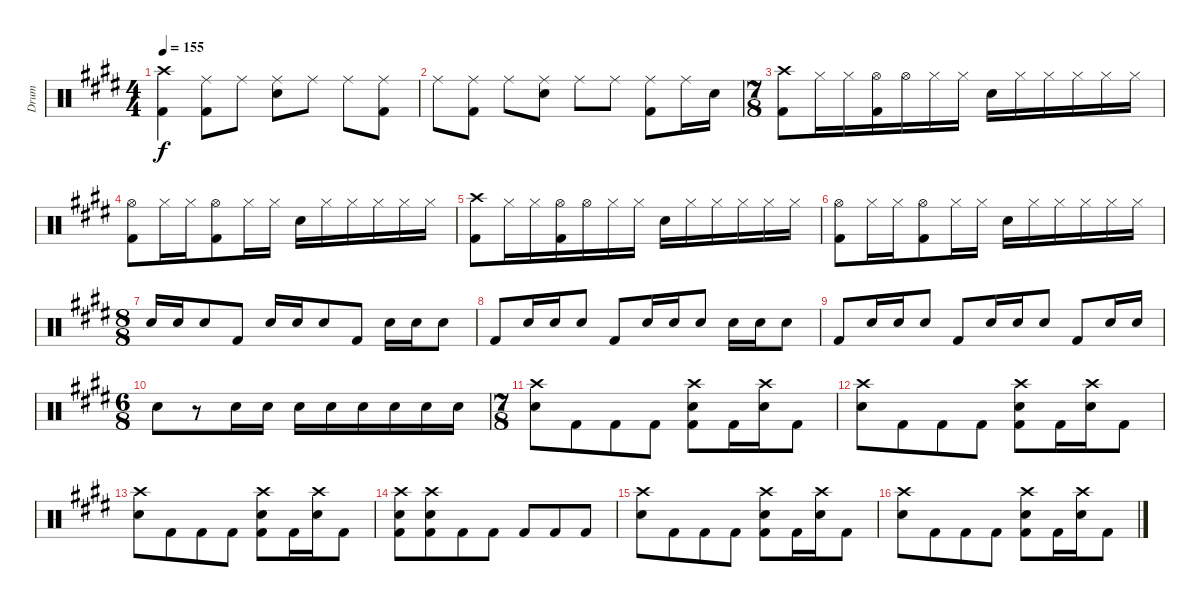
\track ("Drum" "Drum") {instrument percussion}
\staff {score}
\articulation defaults
\ts (4 4)
\tempo 155
\clef neutral
\ks e
("Crash high (hit)" "Kick (hit) 2").4{dy f} ("Ride (middle)" "Kick (hit) 2").8 "Ride (middle)".8 ("Ride (middle)" "Snare (hit) 2").8 "Ride (middle)".8 "Ride (middle)".8 ("Ride (middle)" "Kick (hit) 2").8 |
"Ride (middle)".8 ("Ride (middle)" "Kick (hit) 2").8 "Ride (middle)".8 ("Ride (middle)" "Snare (hit) 2").8 "Ride (middle)".8 "Ride (middle)".8 ("Ride (middle)" "Kick (hit) 2").8 "Ride (middle)".16 "Snare (hit) 2".16 |
\ts (7 8)
("Crash high (hit)" "Kick (hit) 2").8 "Hi-Hat (closed)".16 "Hi-Hat (closed)".16 ("Hi-Hat (open)" "Kick (hit) 2").16 "Hi-Hat (open)".16 "Hi-Hat (closed)".16 "Hi-Hat (closed)".16 "Snare (hit) 2".16 "Hi-Hat (closed)".16 "Hi-Hat (closed)".16 "Hi-Hat (closed)".16 "Hi-Hat (closed)".16 "Hi-Hat (closed)".16 |
("Hi-Hat (open)" "Kick (hit) 2").8 "Hi-Hat (closed)".16 "Hi-Hat (closed)".16 ("Hi-Hat (open)" "Kick (hit) 2").8 "Hi-Hat (closed)".16 "Hi-Hat (closed)".16 "Snare (hit) 2".16 "Hi-Hat (closed)".16 "Hi-Hat (closed)".16 "Hi-Hat (closed)".16 "Hi-Hat (closed)".16 "Hi-Hat (closed)".16 |
("Crash high (hit)" "Kick (hit) 2").8 "Hi-Hat (closed)".16 "Hi-Hat (closed)".16 ("Hi-Hat (open)" "Kick (hit) 2").16 "Hi-Hat (open)".16 "Hi-Hat (closed)".16 "Hi-Hat (closed)".16 "Snare (hit) 2".16 "Hi-Hat (closed)".16 "Hi-Hat (closed)".16 "Hi-Hat (closed)".16 "Hi-Hat (closed)".16 "Hi-Hat (closed)".16 |
("Hi-Hat (open)" "Kick (hit) 2").8 "Hi-Hat (closed)".16 "Hi-Hat (closed)".16 ("Hi-Hat (open)" "Kick (hit) 2").8 "Hi-Hat (closed)".16 "Hi-Hat (closed)".16 "Snare (hit) 2".16 "Hi-Hat (closed)".16 "Hi-Hat (closed)".16 "Hi-Hat (closed)".16 "Hi-Hat (closed)".16 "Hi-Hat (closed)".16 |
\ts (8 8)
"Snare (hit) 2".16 "Snare (hit) 2".16 "Snare (hit) 2".8 "Kick (hit) 2".8 "Snare (hit) 2".16 "Snare (hit) 2".16 "Snare (hit) 2".8 "Kick (hit) 2".8 "Snare (hit) 2".16 "Snare (hit) 2".16 "Snare (hit) 2".8 |
"Kick (hit) 2".8 "Snare (hit) 2".16 "Snare (hit) 2".16 "Snare (hit) 2".8 "Kick (hit) 2".8 "Snare (hit) 2".16 "Snare (hit) 2".16 "Snare (hit) 2".8 "Snare (hit) 2".16 "Snare (hit) 2".16 "Snare (hit) 2".8 |
"Kick (hit) 2".8 "Snare (hit) 2".16 "Snare (hit) 2".16 "Snare (hit) 2".8 "Kick (hit) 2".8 "Snare (hit) 2".16 "Snare (hit) 2".16 "Snare (hit) 2".8 "Kick (hit) 2".8 "Snare (hit) 2".16 "Snare (hit) 2".16 |
\ts (6 8)
"Snare (hit) 2".8 r.8 "Snare (hit) 2".16 "Snare (hit) 2".16 "Snare (hit) 2".16 "Snare (hit) 2".16 "Snare (hit) 2".16 "Snare (hit) 2".16 "Snare (hit) 2".16 "Snare (hit) 2".16 |
\ts (7 8)
("Crash high (hit)" "Snare (hit) 2").8 "Kick (hit) 2".8 "Kick (hit) 2".8 "Kick (hit) 2".8 ("Crash high (hit)" "Snare (hit) 2" "Kick (hit) 2").8 "Kick (hit) 2".16 ("Crash high (hit)" "Snare (hit) 2").16 "Kick (hit) 2".8 |
("Crash high (hit)" "Snare (hit) 2").8 "Kick (hit) 2".8 "Kick (hit) 2".8 "Kick (hit) 2".8 ("Crash high (hit)" "Snare (hit) 2" "Kick (hit) 2").8 "Kick (hit) 2".16 ("Crash high (hit)" "Snare (hit) 2").16 "Kick (hit) 2".8 |
("Crash high (hit)" "Snare (hit) 2").8 "Kick (hit) 2".8 "Kick (hit) 2".8 "Kick (hit) 2".8 ("Crash high (hit)" "Snare (hit) 2" "Kick (hit) 2").8 "Kick (hit) 2".16 ("Crash high (hit)" "Snare (hit) 2").16 "Kick (hit) 2".8 |
("Kick (hit) 2" "Crash high (hit)" "Snare (hit) 2").8 ("Snare (hit) 2" "Crash high (hit)" "Kick (hit) 2").8 "Kick (hit) 2".8 "Kick (hit) 2".8 "Kick (hit) 2".8 "Kick (hit) 2".8 "Kick (hit) 2".8 |
("Crash high (hit)" "Snare (hit) 2").8 "Kick (hit) 2".8 "Kick (hit) 2".8 "Kick (hit) 2".8 ("Crash high (hit)" "Snare (hit) 2" "Kick (hit) 2").8 "Kick (hit) 2".16 ("Crash high (hit)" "Snare (hit) 2").16 "Kick (hit) 2".8 |
("Crash high (hit)" "Snare (hit) 2").8 "Kick (hit) 2".8 "Kick (hit) 2".8 "Kick (hit) 2".8 ("Crash high (hit)" "Snare (hit) 2" "Kick (hit) 2").8 "Kick (hit) 2".16 ("Crash high (hit)" "Snare (hit) 2").16 "Kick (hit) 2".8
